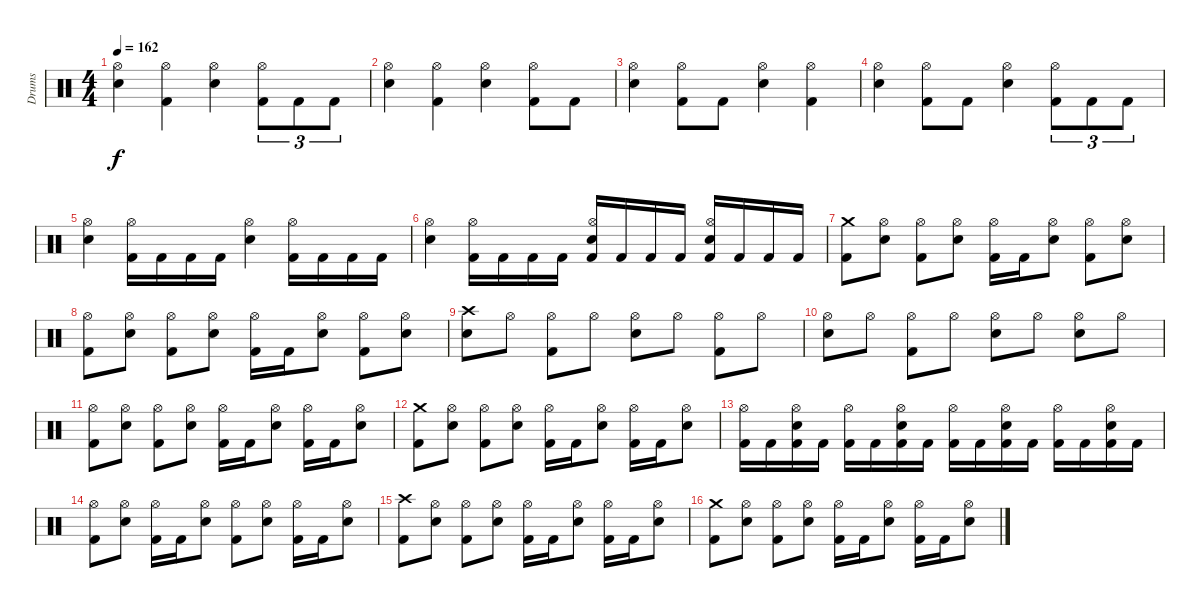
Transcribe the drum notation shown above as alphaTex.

\track ("Drums" "Drums") {instrument percussion}
\staff {score}
\articulation defaults
\ts (4 4)
\tempo 162
\clef neutral
\ks c
("Snare (hit) 2" "Hi-Hat (open)").4{dy f} ("Kick (hit) 2" "Hi-Hat (open)").4 ("Snare (hit) 2" "Hi-Hat (open)").4 ("Kick (hit) 2" "Hi-Hat (open)").8{tu (3 2)} "Kick (hit) 2".8{tu (3 2)} "Kick (hit) 2".8{tu (3 2)} |
("Snare (hit) 2" "Hi-Hat (open)").4 ("Kick (hit) 2" "Hi-Hat (open)").4 ("Snare (hit) 2" "Hi-Hat (open)").4 ("Kick (hit) 2" "Hi-Hat (open)").8 "Kick (hit) 2".8 |
("Snare (hit) 2" "Hi-Hat (open)").4 ("Kick (hit) 2" "Hi-Hat (open)").8 "Kick (hit) 2".8 ("Snare (hit) 2" "Hi-Hat (open)").4 ("Kick (hit) 2" "Hi-Hat (open)").4 |
("Snare (hit) 2" "Hi-Hat (open)").4 ("Kick (hit) 2" "Hi-Hat (open)").8 "Kick (hit) 2".8 ("Snare (hit) 2" "Hi-Hat (open)").4 ("Kick (hit) 2" "Hi-Hat (open)").8{tu (3 2)} "Kick (hit) 2".8{tu (3 2)} "Kick (hit) 2".8{tu (3 2)} |
("Snare (hit) 2" "Hi-Hat (open)").4 ("Kick (hit) 2" "Hi-Hat (open)").16 "Kick (hit) 2".16 "Kick (hit) 2".16 "Kick (hit) 2".16 ("Snare (hit) 2" "Hi-Hat (open)").4 ("Kick (hit) 2" "Hi-Hat (open)").16 "Kick (hit) 2".16 "Kick (hit) 2".16 "Kick (hit) 2".16 |
("Snare (hit) 2" "Hi-Hat (open)").4 ("Kick (hit) 2" "Hi-Hat (open)").16 "Kick (hit) 2".16 "Kick (hit) 2".16 "Kick (hit) 2".16 ("Kick (hit) 2" "Snare (hit) 2" "Hi-Hat (open)").16 "Kick (hit) 2".16 "Kick (hit) 2".16 "Kick (hit) 2".16 ("Kick (hit) 2" "Snare (hit) 2" "Hi-Hat (open)").16 "Kick (hit) 2".16 "Kick (hit) 2".16 "Kick (hit) 2".16 |
\section ("" "")
("Kick (hit) 2" "Crash medium (hit)").8 ("Snare (hit) 2" "Hi-Hat (open)").8 ("Kick (hit) 2" "Hi-Hat (open)").8 ("Snare (hit) 2" "Hi-Hat (open)").8 ("Kick (hit) 2" "Hi-Hat (open)").16 "Kick (hit) 2".16 ("Snare (hit) 2" "Hi-Hat (open)").8 ("Kick (hit) 2" "Hi-Hat (open)").8 ("Snare (hit) 2" "Hi-Hat (open)").8 |
("Kick (hit) 2" "Hi-Hat (open)").8 ("Snare (hit) 2" "Hi-Hat (open)").8 ("Kick (hit) 2" "Hi-Hat (open)").8 ("Snare (hit) 2" "Hi-Hat (open)").8 ("Kick (hit) 2" "Hi-Hat (open)").16 "Kick (hit) 2".16 ("Snare (hit) 2" "Hi-Hat (open)").8 ("Kick (hit) 2" "Hi-Hat (open)").8 ("Snare (hit) 2" "Hi-Hat (open)").8 |
("Snare (hit) 2" "Crash high (hit)").8 "Hi-Hat (open)".8 ("Kick (hit) 2" "Hi-Hat (open)").8 "Hi-Hat (open)".8 ("Snare (hit) 2" "Hi-Hat (open)").8 "Hi-Hat (open)".8 ("Kick (hit) 2" "Hi-Hat (open)").8 "Hi-Hat (open)".8 |
("Snare (hit) 2" "Hi-Hat (open)").8 "Hi-Hat (open)".8 ("Kick (hit) 2" "Hi-Hat (open)").8 "Hi-Hat (open)".8 ("Snare (hit) 2" "Hi-Hat (open)").8 "Hi-Hat (open)".8 ("Snare (hit) 2" "Hi-Hat (open)").8 "Hi-Hat (open)".8 |
("Kick (hit) 2" "Hi-Hat (open)").8 ("Snare (hit) 2" "Hi-Hat (open)").8 ("Kick (hit) 2" "Hi-Hat (open)").8 ("Snare (hit) 2" "Hi-Hat (open)").8 ("Kick (hit) 2" "Hi-Hat (open)").16 "Kick (hit) 2".16 ("Snare (hit) 2" "Hi-Hat (open)").8 ("Kick (hit) 2" "Hi-Hat (open)").16 "Kick (hit) 2".16 ("Snare (hit) 2" "Hi-Hat (open)").8 |
("Kick (hit) 2" "Crash medium (hit)").8 ("Snare (hit) 2" "Hi-Hat (open)").8 ("Kick (hit) 2" "Hi-Hat (open)").8 ("Snare (hit) 2" "Hi-Hat (open)").8 ("Kick (hit) 2" "Hi-Hat (open)").16 "Kick (hit) 2".16 ("Snare (hit) 2" "Hi-Hat (open)").8 ("Kick (hit) 2" "Hi-Hat (open)").16 "Kick (hit) 2".16 ("Snare (hit) 2" "Hi-Hat (open)").8 |
("Kick (hit) 2" "Hi-Hat (open)").16 "Kick (hit) 2".16 ("Kick (hit) 2" "Snare (hit) 2" "Hi-Hat (open)").16 "Kick (hit) 2".16 ("Kick (hit) 2" "Hi-Hat (open)").16 "Kick (hit) 2".16 ("Kick (hit) 2" "Snare (hit) 2" "Hi-Hat (open)").16 "Kick (hit) 2".16 ("Kick (hit) 2" "Hi-Hat (open)").16 "Kick (hit) 2".16 ("Kick (hit) 2" "Snare (hit) 2" "Hi-Hat (open)").16 "Kick (hit) 2".16 ("Kick (hit) 2" "Hi-Hat (open)").16 "Kick (hit) 2".16 ("Kick (hit) 2" "Snare (hit) 2" "Hi-Hat (open)").16 "Kick (hit) 2".16 |
("Kick (hit) 2" "Hi-Hat (open)").8 ("Snare (hit) 2" "Hi-Hat (open)").8 ("Kick (hit) 2" "Hi-Hat (open)").16 "Kick (hit) 2".16 ("Snare (hit) 2" "Hi-Hat (open)").8 ("Kick (hit) 2" "Hi-Hat (open)").8 ("Snare (hit) 2" "Hi-Hat (open)").8 ("Kick (hit) 2" "Hi-Hat (open)").16 "Kick (hit) 2".16 ("Snare (hit) 2" "Hi-Hat (open)").8 |
\section ("" "")
("Kick (hit) 2" "Crash high (hit)").8 ("Snare (hit) 2" "Hi-Hat (open)").8 ("Kick (hit) 2" "Hi-Hat (open)").8 ("Snare (hit) 2" "Hi-Hat (open)").8 ("Kick (hit) 2" "Hi-Hat (open)").16 "Kick (hit) 2".16 ("Snare (hit) 2" "Hi-Hat (open)").8 ("Kick (hit) 2" "Hi-Hat (open)").16 "Kick (hit) 2".16 ("Snare (hit) 2" "Hi-Hat (open)").8 |
("Kick (hit) 2" "Crash medium (hit)").8 ("Snare (hit) 2" "Hi-Hat (open)").8 ("Kick (hit) 2" "Hi-Hat (open)").8 ("Snare (hit) 2" "Hi-Hat (open)").8 ("Kick (hit) 2" "Hi-Hat (open)").16 "Kick (hit) 2".16 ("Snare (hit) 2" "Hi-Hat (open)").8 ("Kick (hit) 2" "Hi-Hat (open)").16 "Kick (hit) 2".16 ("Snare (hit) 2" "Hi-Hat (open)").8
